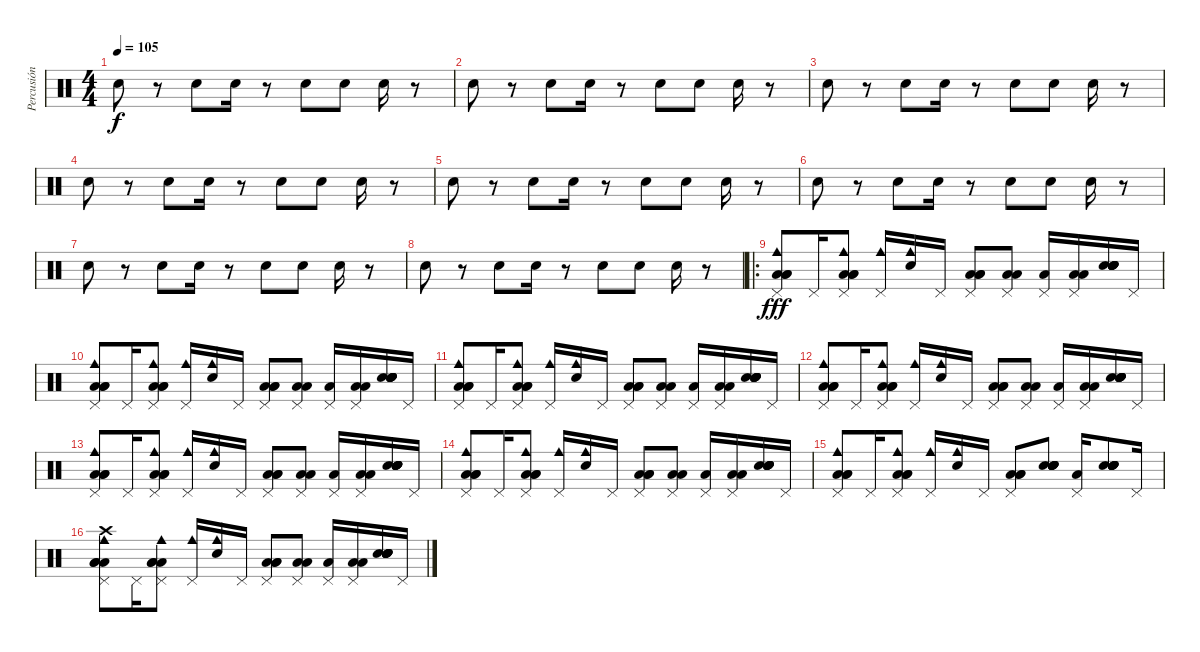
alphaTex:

\track ("Percusión" "Percusión") {instrument percussion}
\staff {score}
\articulation defaults
\ts (4 4)
\tempo 105
\clef neutral
\ks c "Hand Clap (hit)".8{dy f}
r.8 "Hand Clap (hit)".8 "Hand Clap (hit)".16 r.8 "Hand Clap (hit)".8 "Hand Clap (hit)".8 "Hand Clap (hit)".16 r.8 |
"Hand Clap (hit)".8 r.8 "Hand Clap (hit)".8 "Hand Clap (hit)".16 r.8 "Hand Clap (hit)".8 "Hand Clap (hit)".8 "Hand Clap (hit)".16 r.8 |
"Hand Clap (hit)".8 r.8 "Hand Clap (hit)".8 "Hand Clap (hit)".16 r.8 "Hand Clap (hit)".8 "Hand Clap (hit)".8 "Hand Clap (hit)".16 r.8 |
"Hand Clap (hit)".8 r.8 "Hand Clap (hit)".8 "Hand Clap (hit)".16 r.8 "Hand Clap (hit)".8 "Hand Clap (hit)".8 "Hand Clap (hit)".16 r.8 |
"Hand Clap (hit)".8 r.8 "Hand Clap (hit)".8 "Hand Clap (hit)".16 r.8 "Hand Clap (hit)".8 "Hand Clap (hit)".8 "Hand Clap (hit)".16 r.8 |
"Hand Clap (hit)".8 r.8 "Hand Clap (hit)".8 "Hand Clap (hit)".16 r.8 "Hand Clap (hit)".8 "Hand Clap (hit)".8 "Hand Clap (hit)".16 r.8 |
"Hand Clap (hit)".8 r.8 "Hand Clap (hit)".8 "Hand Clap (hit)".16 r.8 "Hand Clap (hit)".8 "Hand Clap (hit)".8 "Hand Clap (hit)".16 r.8 |
"Hand Clap (hit)".8 r.8 "Hand Clap (hit)".8 "Hand Clap (hit)".16 r.8 "Hand Clap (hit)".8 "Hand Clap (hit)".8 "Hand Clap (hit)".16 r.8 |
\ro
("Cowbell medium (hit)" "Low Tom (hit)" "Pedal Hi-Hat (hit)" "Low Tom (hit)" "Low Tom (hit)").8{dy fff} "Pedal Hi-Hat (hit)".16 ("Cowbell medium (hit)" "Low Tom (hit)" "Pedal Hi-Hat (hit)" "Low Tom (hit)" "Low Tom (hit)").8 ("Cowbell medium (hit)" "Pedal Hi-Hat (hit)").16 ("Cowbell medium (hit)" "Snare (hit) 2").16 "Pedal Hi-Hat (hit)".16 ("Low Tom (hit)" "Pedal Hi-Hat (hit)" "Low Tom (hit)" "Low Tom (hit)").8 ("Pedal Hi-Hat (hit)" "Low Tom (hit)" "Low Tom (hit)").8 ("Low Tom (hit)" "Pedal Hi-Hat (hit)").16 ("Pedal Hi-Hat (hit)" "Low Tom (hit)" "Low Tom (hit)").16 ("Snare (hit) 2" "Snare (hit) 2" "Snare (hit) 2" "Snare (hit) 2" "Snare (hit) 2" "Snare (hit) 2").16 "Pedal Hi-Hat (hit)".16 |
("Cowbell medium (hit)" "Low Tom (hit)" "Pedal Hi-Hat (hit)" "Low Tom (hit)" "Low Tom (hit)").8 "Pedal Hi-Hat (hit)".16 ("Cowbell medium (hit)" "Low Tom (hit)" "Pedal Hi-Hat (hit)" "Low Tom (hit)" "Low Tom (hit)").8 ("Cowbell medium (hit)" "Pedal Hi-Hat (hit)").16 ("Cowbell medium (hit)" "Snare (hit) 2").16 "Pedal Hi-Hat (hit)".16 ("Low Tom (hit)" "Pedal Hi-Hat (hit)" "Low Tom (hit)" "Low Tom (hit)").8 ("Pedal Hi-Hat (hit)" "Low Tom (hit)" "Low Tom (hit)").8 ("Low Tom (hit)" "Pedal Hi-Hat (hit)").16 ("Pedal Hi-Hat (hit)" "Low Tom (hit)" "Low Tom (hit)").16 ("Snare (hit) 2" "Snare (hit) 2" "Snare (hit) 2" "Snare (hit) 2" "Snare (hit) 2" "Snare (hit) 2").16 "Pedal Hi-Hat (hit)".16 |
("Cowbell medium (hit)" "Low Tom (hit)" "Pedal Hi-Hat (hit)" "Low Tom (hit)" "Low Tom (hit)").8 "Pedal Hi-Hat (hit)".16 ("Cowbell medium (hit)" "Low Tom (hit)" "Pedal Hi-Hat (hit)" "Low Tom (hit)" "Low Tom (hit)").8 ("Cowbell medium (hit)" "Pedal Hi-Hat (hit)").16 ("Cowbell medium (hit)" "Snare (hit) 2").16 "Pedal Hi-Hat (hit)".16 ("Low Tom (hit)" "Pedal Hi-Hat (hit)" "Low Tom (hit)" "Low Tom (hit)").8 ("Pedal Hi-Hat (hit)" "Low Tom (hit)" "Low Tom (hit)").8 ("Low Tom (hit)" "Pedal Hi-Hat (hit)").16 ("Pedal Hi-Hat (hit)" "Low Tom (hit)" "Low Tom (hit)").16 ("Snare (hit) 2" "Snare (hit) 2" "Snare (hit) 2" "Snare (hit) 2" "Snare (hit) 2" "Snare (hit) 2").16 "Pedal Hi-Hat (hit)".16 |
("Cowbell medium (hit)" "Low Tom (hit)" "Pedal Hi-Hat (hit)" "Low Tom (hit)" "Low Tom (hit)").8 "Pedal Hi-Hat (hit)".16 ("Cowbell medium (hit)" "Low Tom (hit)" "Pedal Hi-Hat (hit)" "Low Tom (hit)" "Low Tom (hit)").8 ("Cowbell medium (hit)" "Pedal Hi-Hat (hit)").16 ("Cowbell medium (hit)" "Snare (hit) 2").16 "Pedal Hi-Hat (hit)".16 ("Low Tom (hit)" "Pedal Hi-Hat (hit)" "Low Tom (hit)" "Low Tom (hit)").8 ("Pedal Hi-Hat (hit)" "Low Tom (hit)" "Low Tom (hit)").8 ("Low Tom (hit)" "Pedal Hi-Hat (hit)").16 ("Pedal Hi-Hat (hit)" "Low Tom (hit)" "Low Tom (hit)").16 ("Snare (hit) 2" "Snare (hit) 2" "Snare (hit) 2" "Snare (hit) 2" "Snare (hit) 2" "Snare (hit) 2").16 "Pedal Hi-Hat (hit)".16 |
("Cowbell medium (hit)" "Low Tom (hit)" "Pedal Hi-Hat (hit)" "Low Tom (hit)" "Low Tom (hit)").8 "Pedal Hi-Hat (hit)".16 ("Cowbell medium (hit)" "Low Tom (hit)" "Pedal Hi-Hat (hit)" "Low Tom (hit)" "Low Tom (hit)").8 ("Cowbell medium (hit)" "Pedal Hi-Hat (hit)").16 ("Cowbell medium (hit)" "Snare (hit) 2").16 "Pedal Hi-Hat (hit)".16 ("Low Tom (hit)" "Pedal Hi-Hat (hit)" "Low Tom (hit)" "Low Tom (hit)").8 ("Pedal Hi-Hat (hit)" "Low Tom (hit)" "Low Tom (hit)").8 ("Low Tom (hit)" "Pedal Hi-Hat (hit)").16 ("Pedal Hi-Hat (hit)" "Low Tom (hit)" "Low Tom (hit)").16 ("Snare (hit) 2" "Snare (hit) 2" "Snare (hit) 2" "Snare (hit) 2" "Snare (hit) 2" "Snare (hit) 2").16 "Pedal Hi-Hat (hit)".16 |
("Cowbell medium (hit)" "Low Tom (hit)" "Pedal Hi-Hat (hit)" "Low Tom (hit)" "Low Tom (hit)").8 "Pedal Hi-Hat (hit)".16 ("Cowbell medium (hit)" "Low Tom (hit)" "Pedal Hi-Hat (hit)" "Low Tom (hit)" "Low Tom (hit)").8 ("Cowbell medium (hit)" "Pedal Hi-Hat (hit)").16 ("Cowbell medium (hit)" "Snare (hit) 2").16 "Pedal Hi-Hat (hit)".16 ("Low Tom (hit)" "Pedal Hi-Hat (hit)" "Low Tom (hit)" "Low Tom (hit)").8 ("Pedal Hi-Hat (hit)" "Low Tom (hit)" "Low Tom (hit)").8 ("Low Tom (hit)" "Pedal Hi-Hat (hit)").16 ("Pedal Hi-Hat (hit)" "Low Tom (hit)" "Low Tom (hit)").16 ("Snare (hit) 2" "Snare (hit) 2" "Snare (hit) 2" "Snare (hit) 2" "Snare (hit) 2" "Snare (hit) 2").16 "Pedal Hi-Hat (hit)".16 |
("Cowbell medium (hit)" "Low Tom (hit)" "Pedal Hi-Hat (hit)" "Low Tom (hit)" "Low Tom (hit)").8 "Pedal Hi-Hat (hit)".16 ("Cowbell medium (hit)" "Low Tom (hit)" "Pedal Hi-Hat (hit)" "Low Tom (hit)" "Low Tom (hit)").8 ("Cowbell medium (hit)" "Pedal Hi-Hat (hit)").16 ("Cowbell medium (hit)" "Snare (hit) 2").16 "Pedal Hi-Hat (hit)".16 ("Low Tom (hit)" "Pedal Hi-Hat (hit)" "Low Tom (hit)" "Low Tom (hit)").8 ("Snare (hit) 2" "Snare (hit) 2" "Snare (hit) 2" "Snare (hit) 2" "Snare (hit) 2" "Snare (hit) 2").8{bd 240} ("Low Tom (hit)" "Pedal Hi-Hat (hit)").16 ("Snare (hit) 2" "Snare (hit) 2" "Snare (hit) 2" "Snare (hit) 2" "Snare (hit) 2" "Snare (hit) 2").8{bu 240} "Pedal Hi-Hat (hit)".16 |
("Cowbell medium (hit)" "Crash high (hit)" "Low Tom (hit)" "Pedal Hi-Hat (hit)" "Low Tom (hit)" "Low Tom (hit)").8 "Pedal Hi-Hat (hit)".16 ("Cowbell medium (hit)" "Low Tom (hit)" "Pedal Hi-Hat (hit)" "Low Tom (hit)" "Low Tom (hit)").8 ("Cowbell medium (hit)" "Pedal Hi-Hat (hit)").16 ("Cowbell medium (hit)" "Snare (hit) 2").16 "Pedal Hi-Hat (hit)".16 ("Low Tom (hit)" "Pedal Hi-Hat (hit)" "Low Tom (hit)" "Low Tom (hit)").8 ("Pedal Hi-Hat (hit)" "Low Tom (hit)" "Low Tom (hit)").8 ("Low Tom (hit)" "Pedal Hi-Hat (hit)").16 ("Pedal Hi-Hat (hit)" "Low Tom (hit)" "Low Tom (hit)").16 ("Snare (hit) 2" "Snare (hit) 2" "Snare (hit) 2" "Snare (hit) 2" "Snare (hit) 2" "Snare (hit) 2").16 "Pedal Hi-Hat (hit)".16
